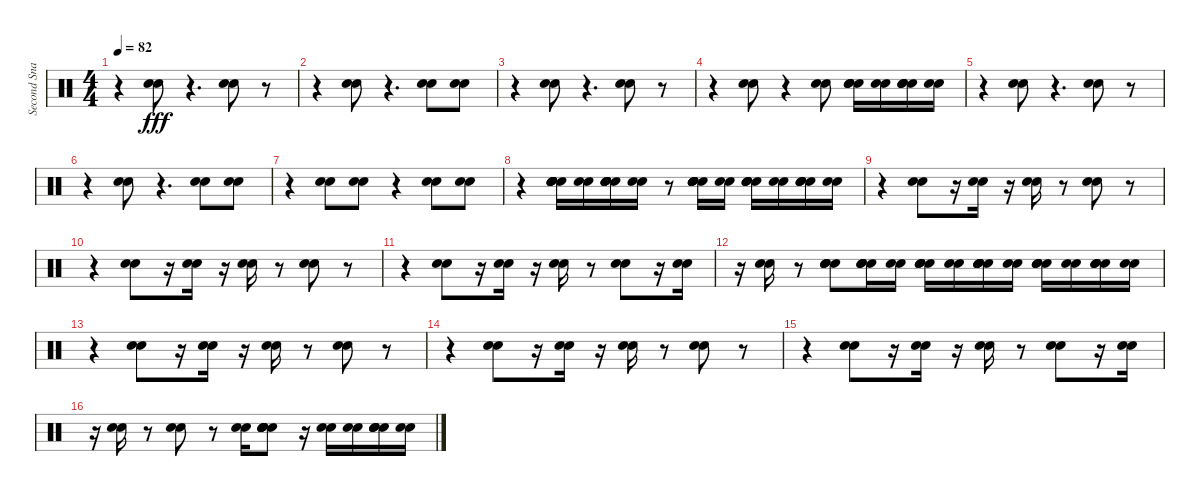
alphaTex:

\track ("Second Snare" "Second Sna") {instrument percussion}
\staff {score}
\articulation defaults
\ts (4 4)
\tempo 82
\clef neutral
\ks c
r.4{dy fff} ("Snare (hit) 2" "Electric Snare (hit)").8 r.4{d} ("Snare (hit) 2" "Electric Snare (hit)").8 r.8 |
r.4 ("Snare (hit) 2" "Electric Snare (hit)").8 r.4{d} ("Snare (hit) 2" "Electric Snare (hit)").8 ("Snare (hit) 2" "Electric Snare (hit)").8 |
r.4 ("Snare (hit) 2" "Electric Snare (hit)").8 r.4{d} ("Snare (hit) 2" "Electric Snare (hit)").8 r.8 |
r.4 ("Snare (hit) 2" "Electric Snare (hit)").8 r.4 ("Snare (hit) 2" "Electric Snare (hit)").8 ("Snare (hit) 2" "Snare (hit) 2" "Electric Snare (hit)" "Electric Snare (hit)").16 ("Snare (hit) 2" "Electric Snare (hit)").16 ("Snare (hit) 2" "Snare (hit) 2" "Electric Snare (hit)" "Electric Snare (hit)").16 ("Snare (hit) 2" "Electric Snare (hit)").16 |
r.4 ("Snare (hit) 2" "Electric Snare (hit)").8 r.4{d} ("Snare (hit) 2" "Electric Snare (hit)").8 r.8 |
r.4 ("Snare (hit) 2" "Electric Snare (hit)").8 r.4{d} ("Snare (hit) 2" "Electric Snare (hit)").8 ("Snare (hit) 2" "Electric Snare (hit)").8 |
r.4 ("Snare (hit) 2" "Electric Snare (hit)").8 ("Snare (hit) 2" "Electric Snare (hit)").8 r.4 ("Snare (hit) 2" "Electric Snare (hit)").8 ("Snare (hit) 2" "Electric Snare (hit)").8 |
r.4 ("Snare (hit) 2" "Snare (hit) 2" "Snare (hit) 2" "Electric Snare (hit)" "Electric Snare (hit)" "Electric Snare (hit)").16 ("Snare (hit) 2" "Electric Snare (hit)").16 ("Snare (hit) 2" "Snare (hit) 2" "Snare (hit) 2" "Electric Snare (hit)" "Electric Snare (hit)" "Electric Snare (hit)").16 ("Snare (hit) 2" "Electric Snare (hit)").16 r.8 ("Snare (hit) 2" "Snare (hit) 2" "Snare (hit) 2" "Electric Snare (hit)" "Electric Snare (hit)" "Electric Snare (hit)").16 ("Snare (hit) 2" "Electric Snare (hit)").16 ("Snare (hit) 2" "Snare (hit) 2" "Electric Snare (hit)" "Electric Snare (hit)").16 ("Snare (hit) 2" "Electric Snare (hit)").16 ("Snare (hit) 2" "Snare (hit) 2" "Electric Snare (hit)" "Electric Snare (hit)").16 ("Snare (hit) 2" "Electric Snare (hit)").16 |
r.4 ("Snare (hit) 2" "Electric Snare (hit)").8 r.16 ("Snare (hit) 2" "Electric Snare (hit)").16 r.16 ("Snare (hit) 2" "Electric Snare (hit)").16 r.8 ("Snare (hit) 2" "Electric Snare (hit)").8 r.8 |
r.4 ("Snare (hit) 2" "Electric Snare (hit)").8 r.16 ("Snare (hit) 2" "Electric Snare (hit)").16 r.16 ("Snare (hit) 2" "Electric Snare (hit)").16 r.8 ("Snare (hit) 2" "Electric Snare (hit)").8 r.8 |
r.4 ("Snare (hit) 2" "Electric Snare (hit)").8 r.16 ("Snare (hit) 2" "Electric Snare (hit)").16 r.16 ("Snare (hit) 2" "Electric Snare (hit)").16 r.8 ("Snare (hit) 2" "Electric Snare (hit)").8 r.16 ("Snare (hit) 2" "Electric Snare (hit)").16 |
r.16 ("Snare (hit) 2" "Electric Snare (hit)").16 r.8 ("Snare (hit) 2" "Snare (hit) 2" "Electric Snare (hit)" "Electric Snare (hit)").8 ("Snare (hit) 2" "Snare (hit) 2" "Electric Snare (hit)" "Electric Snare (hit)").16 ("Snare (hit) 2" "Electric Snare (hit)").16 ("Snare (hit) 2" "Snare (hit) 2" "Electric Snare (hit)" "Electric Snare (hit)").16 ("Snare (hit) 2" "Electric Snare (hit)").16 ("Snare (hit) 2" "Snare (hit) 2" "Snare (hit) 2" "Electric Snare (hit)" "Electric Snare (hit)" "Electric Snare (hit)").16 ("Snare (hit) 2" "Electric Snare (hit)").16 ("Snare (hit) 2" "Snare (hit) 2" "Electric Snare (hit)" "Electric Snare (hit)").16 ("Snare (hit) 2" "Electric Snare (hit)").16 ("Snare (hit) 2" "Snare (hit) 2" "Electric Snare (hit)" "Electric Snare (hit)").16 ("Snare (hit) 2" "Electric Snare (hit)").16 |
r.4 ("Snare (hit) 2" "Electric Snare (hit)").8 r.16 ("Snare (hit) 2" "Electric Snare (hit)").16 r.16 ("Snare (hit) 2" "Electric Snare (hit)").16 r.8 ("Snare (hit) 2" "Electric Snare (hit)").8 r.8 |
r.4 ("Snare (hit) 2" "Electric Snare (hit)").8 r.16 ("Snare (hit) 2" "Electric Snare (hit)").16 r.16 ("Snare (hit) 2" "Electric Snare (hit)").16 r.8 ("Snare (hit) 2" "Electric Snare (hit)").8 r.8 |
r.4 ("Snare (hit) 2" "Electric Snare (hit)").8 r.16 ("Snare (hit) 2" "Electric Snare (hit)").16 r.16 ("Snare (hit) 2" "Electric Snare (hit)").16 r.8 ("Snare (hit) 2" "Electric Snare (hit)").8 r.16 ("Snare (hit) 2" "Electric Snare (hit)").16 |
r.16 ("Snare (hit) 2" "Electric Snare (hit)").16 r.8 ("Snare (hit) 2" "Electric Snare (hit)").8 r.8 ("Snare (hit) 2" "Electric Snare (hit)").16 ("Snare (hit) 2" "Snare (hit) 2" "Snare (hit) 2" "Electric Snare (hit)" "Electric Snare (hit)" "Electric Snare (hit)").8 r.16 ("Snare (hit) 2" "Electric Snare (hit)").16 ("Snare (hit) 2" "Electric Snare (hit)").16 ("Snare (hit) 2" "Snare (hit) 2" "Electric Snare (hit)" "Electric Snare (hit)").16 ("Snare (hit) 2" "Electric Snare (hit)").16
